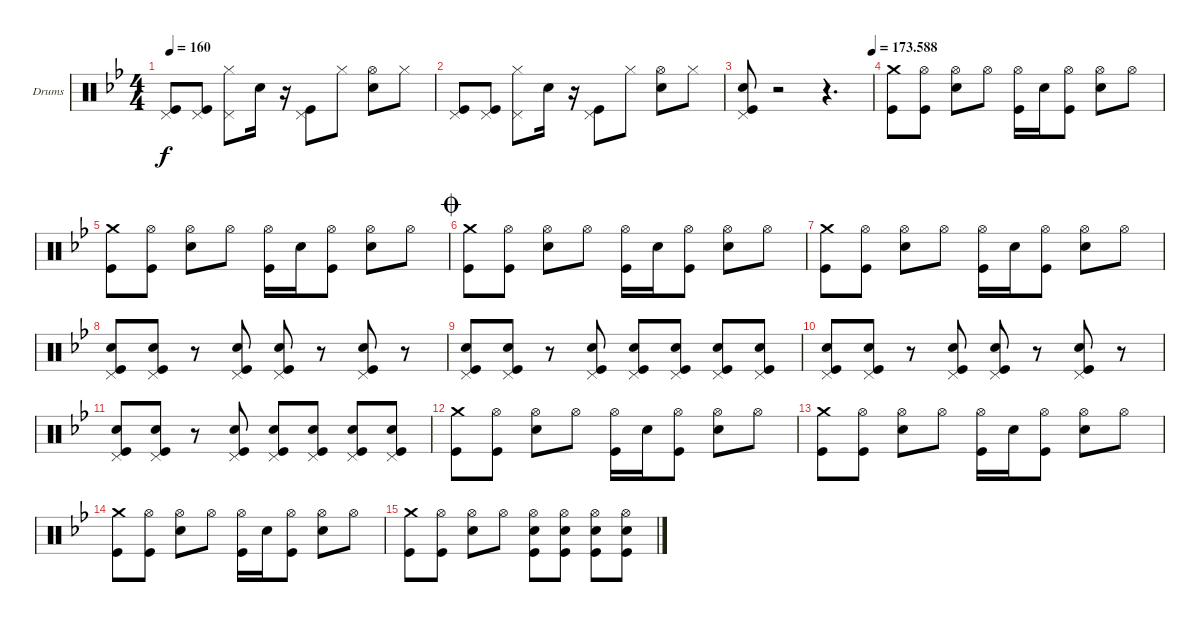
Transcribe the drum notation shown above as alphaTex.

\defaultSystemsLayout 4
\bracketExtendMode groupsimilarinstruments
\firstSystemTrackNameOrientation horizontal
\otherSystemsTrackNameOrientation horizontal
\track ("Drumkit" "Drums") {instrument percussion}
\staff {score}
\articulation defaults
\ts (4 4)
\tempo 160
\clef neutral
\ks bb
("Pedal Hi-Hat (hit)" "Kick (hit)").8{dy f} ("Pedal Hi-Hat (hit)" "Kick (hit)").8 ("Hi-Hat (closed)" "Pedal Hi-Hat (hit)").8 "Snare (hit) 2".16 r.16 ("Kick (hit)" "Pedal Hi-Hat (hit)").8 "Hi-Hat (closed)".8 ("Hi-Hat (open)" "Snare (hit) 2").8 "Hi-Hat (closed)".8 |
("Pedal Hi-Hat (hit)" "Kick (hit)").8 ("Pedal Hi-Hat (hit)" "Kick (hit)").8 ("Hi-Hat (closed)" "Pedal Hi-Hat (hit)").8 "Snare (hit) 2".16 r.16 ("Kick (hit)" "Pedal Hi-Hat (hit)").8 "Hi-Hat (closed)".8 ("Hi-Hat (open)" "Snare (hit) 2").8 "Hi-Hat (closed)".8 |
\tempo (173.588 1)
("Pedal Hi-Hat (hit)" "Snare (hit) 2" "Kick (hit)").8 r.2 r.4{d} |
("Crash medium (hit)" "Kick (hit)").8 ("Kick (hit)" "Hi-Hat (open)").8 ("Hi-Hat (open)" "Snare (hit) 2").8 "Hi-Hat (open)".8 ("Hi-Hat (open)" "Kick (hit)").16 "Snare (hit) 2".16 ("Kick (hit)" "Hi-Hat (open)").8 ("Hi-Hat (open)" "Snare (hit) 2").8 "Hi-Hat (open)".8 |
("Crash medium (hit)" "Kick (hit)").8 ("Kick (hit)" "Hi-Hat (open)").8 ("Hi-Hat (open)" "Snare (hit) 2").8 "Hi-Hat (open)".8 ("Hi-Hat (open)" "Kick (hit)").16 "Snare (hit) 2".16 ("Kick (hit)" "Hi-Hat (open)").8 ("Hi-Hat (open)" "Snare (hit) 2").8 "Hi-Hat (open)".8 |
\jump coda
("Crash medium (hit)" "Kick (hit)").8 ("Kick (hit)" "Hi-Hat (open)").8 ("Hi-Hat (open)" "Snare (hit) 2").8 "Hi-Hat (open)".8 ("Hi-Hat (open)" "Kick (hit)").16 "Snare (hit) 2".16 ("Kick (hit)" "Hi-Hat (open)").8 ("Hi-Hat (open)" "Snare (hit) 2").8 "Hi-Hat (open)".8 |
("Crash medium (hit)" "Kick (hit)").8 ("Kick (hit)" "Hi-Hat (open)").8 ("Hi-Hat (open)" "Snare (hit) 2").8 "Hi-Hat (open)".8 ("Hi-Hat (open)" "Kick (hit)").16 "Snare (hit) 2".16 ("Kick (hit)" "Hi-Hat (open)").8 ("Hi-Hat (open)" "Snare (hit) 2").8 "Hi-Hat (open)".8 |
("Pedal Hi-Hat (hit)" "Snare (hit) 2" "Kick (hit)").8 ("Pedal Hi-Hat (hit)" "Snare (hit) 2" "Kick (hit)").8 r.8 ("Pedal Hi-Hat (hit)" "Snare (hit) 2" "Kick (hit)").8 ("Pedal Hi-Hat (hit)" "Snare (hit) 2" "Kick (hit)").8 r.8 ("Pedal Hi-Hat (hit)" "Snare (hit) 2" "Kick (hit)").8 r.8 |
("Pedal Hi-Hat (hit)" "Snare (hit) 2" "Kick (hit)").8 ("Pedal Hi-Hat (hit)" "Snare (hit) 2" "Kick (hit)").8 r.8 ("Pedal Hi-Hat (hit)" "Snare (hit) 2" "Kick (hit)").8 ("Pedal Hi-Hat (hit)" "Snare (hit) 2" "Kick (hit)").8 ("Pedal Hi-Hat (hit)" "Snare (hit) 2" "Kick (hit)").8 ("Pedal Hi-Hat (hit)" "Snare (hit) 2" "Kick (hit)").8 ("Pedal Hi-Hat (hit)" "Snare (hit) 2" "Kick (hit)").8 |
("Pedal Hi-Hat (hit)" "Snare (hit) 2" "Kick (hit)").8 ("Pedal Hi-Hat (hit)" "Snare (hit) 2" "Kick (hit)").8 r.8 ("Pedal Hi-Hat (hit)" "Snare (hit) 2" "Kick (hit)").8 ("Pedal Hi-Hat (hit)" "Snare (hit) 2" "Kick (hit)").8 r.8 ("Pedal Hi-Hat (hit)" "Snare (hit) 2" "Kick (hit)").8 r.8 |
("Pedal Hi-Hat (hit)" "Snare (hit) 2" "Kick (hit)").8 ("Pedal Hi-Hat (hit)" "Snare (hit) 2" "Kick (hit)").8 r.8 ("Pedal Hi-Hat (hit)" "Snare (hit) 2" "Kick (hit)").8 ("Pedal Hi-Hat (hit)" "Snare (hit) 2" "Kick (hit)").8 ("Pedal Hi-Hat (hit)" "Snare (hit) 2" "Kick (hit)").8 ("Pedal Hi-Hat (hit)" "Snare (hit) 2" "Kick (hit)").8 ("Pedal Hi-Hat (hit)" "Snare (hit) 2" "Kick (hit)").8 |
("Crash medium (hit)" "Kick (hit)").8 ("Kick (hit)" "Hi-Hat (open)").8 ("Hi-Hat (open)" "Snare (hit) 2").8 "Hi-Hat (open)".8 ("Hi-Hat (open)" "Kick (hit)").16 "Snare (hit) 2".16 ("Kick (hit)" "Hi-Hat (open)").8 ("Hi-Hat (open)" "Snare (hit) 2").8 "Hi-Hat (open)".8 |
("Crash medium (hit)" "Kick (hit)").8 ("Kick (hit)" "Hi-Hat (open)").8 ("Hi-Hat (open)" "Snare (hit) 2").8 "Hi-Hat (open)".8 ("Hi-Hat (open)" "Kick (hit)").16 "Snare (hit) 2".16 ("Kick (hit)" "Hi-Hat (open)").8 ("Hi-Hat (open)" "Snare (hit) 2").8 "Hi-Hat (open)".8 |
("Crash medium (hit)" "Kick (hit)").8 ("Kick (hit)" "Hi-Hat (open)").8 ("Hi-Hat (open)" "Snare (hit) 2").8 "Hi-Hat (open)".8 ("Hi-Hat (open)" "Kick (hit)").16 "Snare (hit) 2".16 ("Kick (hit)" "Hi-Hat (open)").8 ("Hi-Hat (open)" "Snare (hit) 2").8 "Hi-Hat (open)".8 |
("Crash medium (hit)" "Kick (hit)").8 ("Hi-Hat (open)" "Kick (hit)").8 ("Hi-Hat (open)" "Snare (hit) 2").8 "Hi-Hat (open)".8 ("Hi-Hat (open)" "Snare (hit) 2" "Kick (hit)").8 ("Hi-Hat (open)" "Snare (hit) 2" "Kick (hit)").8 ("Hi-Hat (open)" "Snare (hit) 2" "Kick (hit)").8 ("Hi-Hat (open)" "Snare (hit) 2" "Kick (hit)").8
